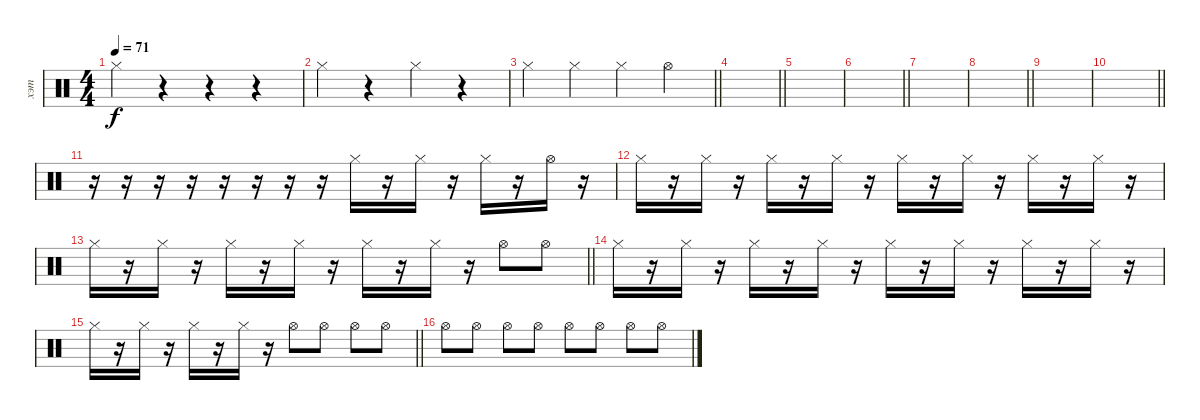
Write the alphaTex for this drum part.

\track ("хэт" "хэт") {instrument percussion}
\staff {score}
\articulation defaults
\ts (4 4)
\tempo 71
\clef neutral
\ks c "Hi-Hat (closed)".4{dy f}
r.4 r.4 r.4 |
"Hi-Hat (closed)".4 r.4 "Hi-Hat (closed)".4 r.4 |
\barLineRight lightlight "Hi-Hat (closed)".4 "Hi-Hat (closed)".4 "Hi-Hat (closed)".4 "Hi-Hat (open)".4
|
\barLineRight lightlight
|
|
\barLineRight lightlight
|
|
\barLineRight lightlight
|
|
\barLineRight lightlight
|
r.16 r.16 r.16 r.16 r.16 r.16 r.16 r.16 "Hi-Hat (closed)".16 r.16 "Hi-Hat (closed)".16 r.16 "Hi-Hat (closed)".16 r.16 "Hi-Hat (open)".16 r.16 |
"Hi-Hat (closed)".16 r.16 "Hi-Hat (closed)".16 r.16 "Hi-Hat (closed)".16 r.16 "Hi-Hat (closed)".16 r.16 "Hi-Hat (closed)".16 r.16 "Hi-Hat (closed)".16 r.16 "Hi-Hat (closed)".16 r.16 "Hi-Hat (closed)".16 r.16 |
\barLineRight lightlight "Hi-Hat (closed)".16
r.16 "Hi-Hat (closed)".16 r.16 "Hi-Hat (closed)".16 r.16 "Hi-Hat (closed)".16 r.16 "Hi-Hat (closed)".16 r.16 "Hi-Hat (closed)".16 r.16 "Hi-Hat (open)".8 "Hi-Hat (open)".8 |
"Hi-Hat (closed)".16 r.16 "Hi-Hat (closed)".16 r.16 "Hi-Hat (closed)".16 r.16 "Hi-Hat (closed)".16 r.16 "Hi-Hat (closed)".16 r.16 "Hi-Hat (closed)".16 r.16 "Hi-Hat (closed)".16 r.16 "Hi-Hat (closed)".16 r.16 |
\barLineRight lightlight "Hi-Hat (closed)".16
r.16 "Hi-Hat (closed)".16 r.16 "Hi-Hat (closed)".16 r.16 "Hi-Hat (closed)".16 r.16 "Hi-Hat (open)".8 "Hi-Hat (open)".8 "Hi-Hat (open)".8 "Hi-Hat (open)".8 |
"Hi-Hat (open)".8{volume 11} "Hi-Hat (open)".8 "Hi-Hat (open)".8 "Hi-Hat (open)".8 "Hi-Hat (open)".8 "Hi-Hat (open)".8 "Hi-Hat (open)".8 "Hi-Hat (open)".8
